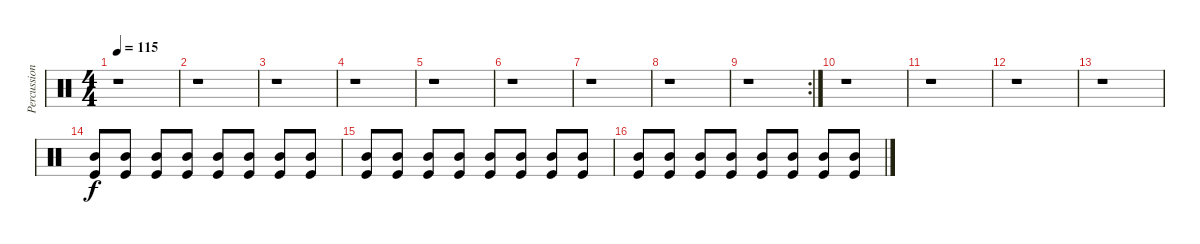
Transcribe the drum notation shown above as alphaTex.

\track ("Percussions" "Percussion") {instrument percussion}
\staff {score}
\articulation defaults
\ts (4 4)
\tempo 115
\clef neutral
\ks c
r.1{dy f} |
r.1 |
r.1 |
r.1 |
r.1 |
r.1 |
r.1 |
r.1 |
\rc 2
r.1 |
r.1 |
r.1 |
r.1 |
r.1 |
("Mid Tom (hit)" "Kick (hit)").8{volume 4} ("Mid Tom (hit)" "Kick (hit)").8{volume 8} ("Mid Tom (hit)" "Kick (hit)").8 ("Mid Tom (hit)" "Kick (hit)").8 ("Mid Tom (hit)" "Kick (hit)").8 ("Mid Tom (hit)" "Kick (hit)").8 ("Mid Tom (hit)" "Kick (hit)").8 ("Mid Tom (hit)" "Kick (hit)").8 |
("Mid Tom (hit)" "Kick (hit)").8{volume 16} ("Mid Tom (hit)" "Kick (hit)").8 ("Mid Tom (hit)" "Kick (hit)").8 ("Mid Tom (hit)" "Kick (hit)").8 ("Mid Tom (hit)" "Kick (hit)").8 ("Mid Tom (hit)" "Kick (hit)").8 ("Mid Tom (hit)" "Kick (hit)").8 ("Mid Tom (hit)" "Kick (hit)").8 |
("Mid Tom (hit)" "Kick (hit)").8 ("Mid Tom (hit)" "Kick (hit)").8 ("Mid Tom (hit)" "Kick (hit)").8 ("Mid Tom (hit)" "Kick (hit)").8 ("Mid Tom (hit)" "Kick (hit)").8 ("Mid Tom (hit)" "Kick (hit)").8 ("Mid Tom (hit)" "Kick (hit)").8 ("Mid Tom (hit)" "Kick (hit)").8
